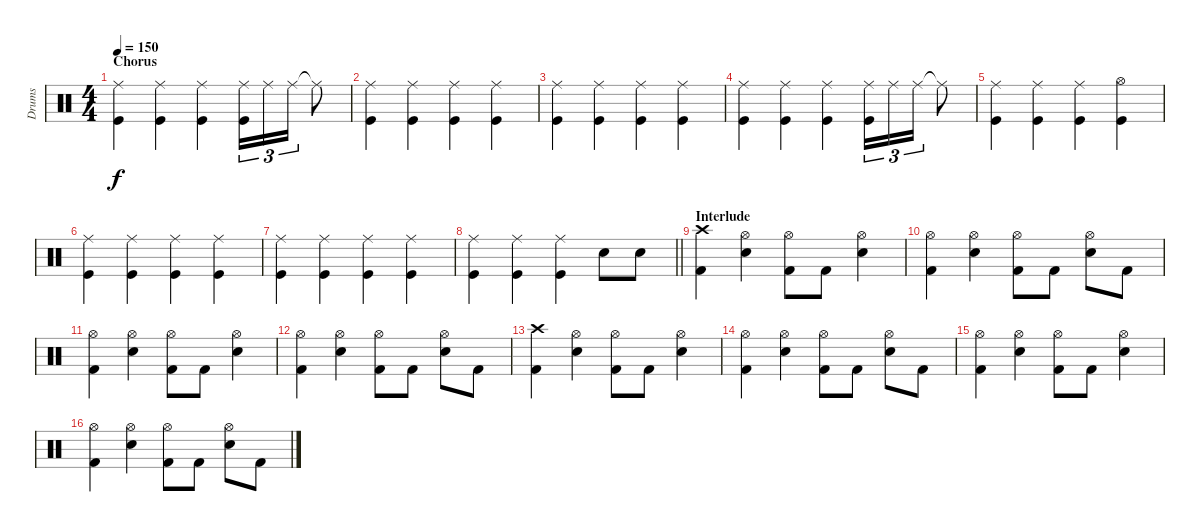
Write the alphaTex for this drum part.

\track ("Drums" "Drums") {instrument percussion}
\staff {score}
\articulation defaults
\ts (4 4)
\section ("" "Chorus")
\tempo 150
\clef neutral
\ks c
("Ride (middle)" "Kick (hit)").4{dy f} ("Ride (middle)" "Kick (hit)").4 ("Ride (middle)" "Kick (hit)").4 ("Ride (middle)" "Kick (hit)").16{tu (3 2)} "Ride (middle)".16{tu (3 2)} "Ride (middle)".16{tu (3 2)} "Ride (middle)"{t}.8 |
("Ride (middle)" "Kick (hit)").4 ("Ride (middle)" "Kick (hit)").4 ("Ride (middle)" "Kick (hit)").4 ("Ride (middle)" "Kick (hit)").4 |
("Ride (middle)" "Kick (hit)").4 ("Ride (middle)" "Kick (hit)").4 ("Ride (middle)" "Kick (hit)").4 ("Ride (middle)" "Kick (hit)").4 |
("Ride (middle)" "Kick (hit)").4 ("Ride (middle)" "Kick (hit)").4 ("Ride (middle)" "Kick (hit)").4 ("Ride (middle)" "Kick (hit)").16{tu (3 2)} "Ride (middle)".16{tu (3 2)} "Ride (middle)".16{tu (3 2)} "Ride (middle)"{t}.8 |
("Ride (middle)" "Kick (hit)").4 ("Ride (middle)" "Kick (hit)").4 ("Ride (middle)" "Kick (hit)").4 ("Hi-Hat (open)" "Kick (hit)").4 |
("Ride (middle)" "Kick (hit)").4 ("Ride (middle)" "Kick (hit)").4 ("Ride (middle)" "Kick (hit)").4 ("Ride (middle)" "Kick (hit)").4 |
("Ride (middle)" "Kick (hit)").4 ("Ride (middle)" "Kick (hit)").4 ("Ride (middle)" "Kick (hit)").4 ("Ride (middle)" "Kick (hit)").4 |
\barLineRight lightlight
("Ride (middle)" "Kick (hit)").4 ("Ride (middle)" "Kick (hit)").4 ("Ride (middle)" "Kick (hit)").4 "Electric Snare (hit)".8 "Electric Snare (hit)".8 |
\section ("" "Interlude")
("Crash high (hit)" "Kick (hit) 2").4 ("Hi-Hat (open)" "Electric Snare (hit)").4 ("Hi-Hat (open)" "Kick (hit) 2").8 "Kick (hit) 2".8 ("Hi-Hat (open)" "Electric Snare (hit)").4 |
("Hi-Hat (open)" "Kick (hit) 2").4 ("Hi-Hat (open)" "Electric Snare (hit)").4 ("Hi-Hat (open)" "Kick (hit) 2").8 "Kick (hit) 2".8 ("Hi-Hat (open)" "Electric Snare (hit)").8 "Kick (hit) 2".8 |
("Hi-Hat (open)" "Kick (hit) 2").4 ("Hi-Hat (open)" "Electric Snare (hit)").4 ("Hi-Hat (open)" "Kick (hit) 2").8 "Kick (hit) 2".8 ("Hi-Hat (open)" "Electric Snare (hit)").4 |
("Hi-Hat (open)" "Kick (hit) 2").4 ("Hi-Hat (open)" "Electric Snare (hit)").4 ("Hi-Hat (open)" "Kick (hit) 2").8 "Kick (hit) 2".8 ("Hi-Hat (open)" "Electric Snare (hit)").8 "Kick (hit) 2".8 |
("Crash high (hit)" "Kick (hit) 2").4 ("Hi-Hat (open)" "Electric Snare (hit)").4 ("Hi-Hat (open)" "Kick (hit) 2").8 "Kick (hit) 2".8 ("Hi-Hat (open)" "Electric Snare (hit)").4 |
("Hi-Hat (open)" "Kick (hit) 2").4 ("Hi-Hat (open)" "Electric Snare (hit)").4 ("Hi-Hat (open)" "Kick (hit) 2").8 "Kick (hit) 2".8 ("Hi-Hat (open)" "Electric Snare (hit)").8 "Kick (hit) 2".8 |
("Hi-Hat (open)" "Kick (hit) 2").4 ("Hi-Hat (open)" "Electric Snare (hit)").4 ("Hi-Hat (open)" "Kick (hit) 2").8 "Kick (hit) 2".8 ("Hi-Hat (open)" "Electric Snare (hit)").4 |
("Hi-Hat (open)" "Kick (hit) 2").4 ("Hi-Hat (open)" "Electric Snare (hit)").4 ("Hi-Hat (open)" "Kick (hit) 2").8 "Kick (hit) 2".8 ("Hi-Hat (open)" "Electric Snare (hit)").8 "Kick (hit) 2".8
